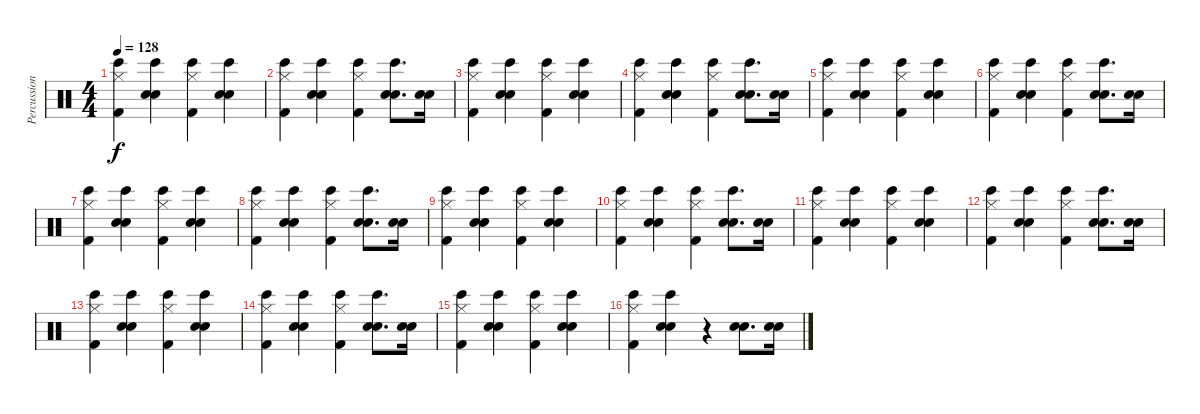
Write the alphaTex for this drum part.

\track ("Percussion" "Percussion") {instrument percussion}
\staff {score}
\articulation defaults
\ts (4 4)
\tempo 128
\clef neutral
\ks c
("Hi-Hat (closed)" "Bongo High (hit)" "Kick (hit) 2").4{dy f} ("Bongo High (hit)" "Hand Clap (hit)" "Electric Snare (hit)").4 ("Hi-Hat (closed)" "Bongo High (hit)" "Kick (hit) 2").4 ("Bongo High (hit)" "Hand Clap (hit)" "Electric Snare (hit)").4 |
("Hi-Hat (closed)" "Bongo High (hit)" "Kick (hit) 2").4 ("Bongo High (hit)" "Hand Clap (hit)" "Electric Snare (hit)").4 ("Hi-Hat (closed)" "Bongo High (hit)" "Kick (hit) 2").4 ("Bongo High (hit)" "Hand Clap (hit)" "Electric Snare (hit)").8{d} ("Hand Clap (hit)" "Electric Snare (hit)").16 |
("Hi-Hat (closed)" "Bongo High (hit)" "Kick (hit) 2").4 ("Bongo High (hit)" "Hand Clap (hit)" "Electric Snare (hit)").4 ("Hi-Hat (closed)" "Bongo High (hit)" "Kick (hit) 2").4 ("Bongo High (hit)" "Hand Clap (hit)" "Electric Snare (hit)").4 |
("Hi-Hat (closed)" "Bongo High (hit)" "Kick (hit) 2").4 ("Bongo High (hit)" "Hand Clap (hit)" "Electric Snare (hit)").4 ("Hi-Hat (closed)" "Bongo High (hit)" "Kick (hit) 2").4 ("Bongo High (hit)" "Hand Clap (hit)" "Electric Snare (hit)").8{d} ("Hand Clap (hit)" "Electric Snare (hit)").16 |
("Hi-Hat (closed)" "Bongo High (hit)" "Kick (hit) 2").4 ("Bongo High (hit)" "Hand Clap (hit)" "Electric Snare (hit)").4 ("Hi-Hat (closed)" "Bongo High (hit)" "Kick (hit) 2").4 ("Bongo High (hit)" "Hand Clap (hit)" "Electric Snare (hit)").4 |
("Hi-Hat (closed)" "Bongo High (hit)" "Kick (hit) 2").4 ("Bongo High (hit)" "Hand Clap (hit)" "Electric Snare (hit)").4 ("Hi-Hat (closed)" "Bongo High (hit)" "Kick (hit) 2").4 ("Bongo High (hit)" "Hand Clap (hit)" "Electric Snare (hit)").8{d} ("Hand Clap (hit)" "Electric Snare (hit)").16 |
("Hi-Hat (closed)" "Bongo High (hit)" "Kick (hit) 2").4 ("Bongo High (hit)" "Hand Clap (hit)" "Electric Snare (hit)").4 ("Hi-Hat (closed)" "Bongo High (hit)" "Kick (hit) 2").4 ("Bongo High (hit)" "Hand Clap (hit)" "Electric Snare (hit)").4 |
("Hi-Hat (closed)" "Bongo High (hit)" "Kick (hit) 2").4 ("Bongo High (hit)" "Hand Clap (hit)" "Electric Snare (hit)").4 ("Hi-Hat (closed)" "Bongo High (hit)" "Kick (hit) 2").4 ("Bongo High (hit)" "Hand Clap (hit)" "Electric Snare (hit)").8{d} ("Hand Clap (hit)" "Electric Snare (hit)").16 |
("Hi-Hat (closed)" "Bongo High (hit)" "Kick (hit) 2").4 ("Bongo High (hit)" "Hand Clap (hit)" "Electric Snare (hit)").4 ("Hi-Hat (closed)" "Bongo High (hit)" "Kick (hit) 2").4 ("Bongo High (hit)" "Hand Clap (hit)" "Electric Snare (hit)").4 |
("Hi-Hat (closed)" "Bongo High (hit)" "Kick (hit) 2").4 ("Bongo High (hit)" "Hand Clap (hit)" "Electric Snare (hit)").4 ("Hi-Hat (closed)" "Bongo High (hit)" "Kick (hit) 2").4 ("Bongo High (hit)" "Hand Clap (hit)" "Electric Snare (hit)").8{d} ("Hand Clap (hit)" "Electric Snare (hit)").16 |
("Hi-Hat (closed)" "Bongo High (hit)" "Kick (hit) 2").4 ("Bongo High (hit)" "Hand Clap (hit)" "Electric Snare (hit)").4 ("Hi-Hat (closed)" "Bongo High (hit)" "Kick (hit) 2").4 ("Bongo High (hit)" "Hand Clap (hit)" "Electric Snare (hit)").4 |
("Hi-Hat (closed)" "Bongo High (hit)" "Kick (hit) 2").4 ("Bongo High (hit)" "Hand Clap (hit)" "Electric Snare (hit)").4 ("Hi-Hat (closed)" "Bongo High (hit)" "Kick (hit) 2").4 ("Bongo High (hit)" "Hand Clap (hit)" "Electric Snare (hit)").8{d} ("Hand Clap (hit)" "Electric Snare (hit)").16 |
("Hi-Hat (closed)" "Bongo High (hit)" "Kick (hit) 2").4 ("Bongo High (hit)" "Hand Clap (hit)" "Electric Snare (hit)").4 ("Hi-Hat (closed)" "Bongo High (hit)" "Kick (hit) 2").4 ("Bongo High (hit)" "Hand Clap (hit)" "Electric Snare (hit)").4 |
("Hi-Hat (closed)" "Bongo High (hit)" "Kick (hit) 2").4 ("Bongo High (hit)" "Hand Clap (hit)" "Electric Snare (hit)").4 ("Hi-Hat (closed)" "Bongo High (hit)" "Kick (hit) 2").4 ("Bongo High (hit)" "Hand Clap (hit)" "Electric Snare (hit)").8{d} ("Hand Clap (hit)" "Electric Snare (hit)").16 |
("Hi-Hat (closed)" "Bongo High (hit)" "Kick (hit) 2").4 ("Bongo High (hit)" "Hand Clap (hit)" "Electric Snare (hit)").4 ("Hi-Hat (closed)" "Bongo High (hit)" "Kick (hit) 2").4 ("Bongo High (hit)" "Hand Clap (hit)" "Electric Snare (hit)").4 |
("Hi-Hat (closed)" "Bongo High (hit)" "Kick (hit) 2").4 ("Bongo High (hit)" "Hand Clap (hit)" "Electric Snare (hit)").4 r.4 ("Hand Clap (hit)" "Electric Snare (hit)").8{d} ("Hand Clap (hit)" "Electric Snare (hit)").16
